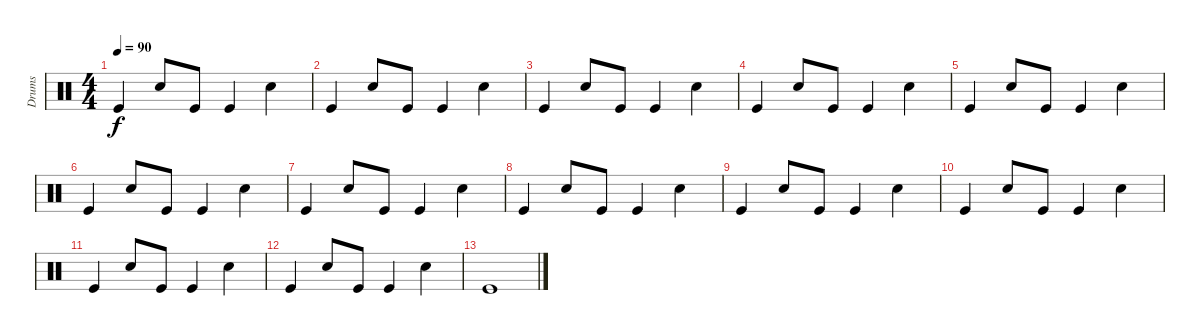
\track ("Drums" "Drums") {instrument percussion}
\staff {score}
\articulation defaults
\ts (4 4)
\tempo 90
\clef neutral
\ks c "Kick (hit)".4{dy f} "Snare (hit) 2".8 "Kick (hit)".8 "Kick (hit)".4 "Snare (hit) 2".4
|
"Kick (hit)".4 "Snare (hit) 2".8 "Kick (hit)".8 "Kick (hit)".4 "Snare (hit) 2".4 |
"Kick (hit)".4 "Snare (hit) 2".8 "Kick (hit)".8 "Kick (hit)".4 "Snare (hit) 2".4 |
"Kick (hit)".4 "Snare (hit) 2".8 "Kick (hit)".8 "Kick (hit)".4 "Snare (hit) 2".4 |
"Kick (hit)".4 "Snare (hit) 2".8 "Kick (hit)".8 "Kick (hit)".4 "Snare (hit) 2".4 |
"Kick (hit)".4 "Snare (hit) 2".8 "Kick (hit)".8 "Kick (hit)".4 "Snare (hit) 2".4 |
"Kick (hit)".4 "Snare (hit) 2".8 "Kick (hit)".8 "Kick (hit)".4 "Snare (hit) 2".4 |
"Kick (hit)".4 "Snare (hit) 2".8 "Kick (hit)".8 "Kick (hit)".4 "Snare (hit) 2".4 |
"Kick (hit)".4 "Snare (hit) 2".8 "Kick (hit)".8 "Kick (hit)".4 "Snare (hit) 2".4 |
"Kick (hit)".4 "Snare (hit) 2".8 "Kick (hit)".8 "Kick (hit)".4 "Snare (hit) 2".4 |
"Kick (hit)".4 "Snare (hit) 2".8 "Kick (hit)".8 "Kick (hit)".4 "Snare (hit) 2".4 |
"Kick (hit)".4 "Snare (hit) 2".8 "Kick (hit)".8 "Kick (hit)".4 "Snare (hit) 2".4 |
"Kick (hit)".1
